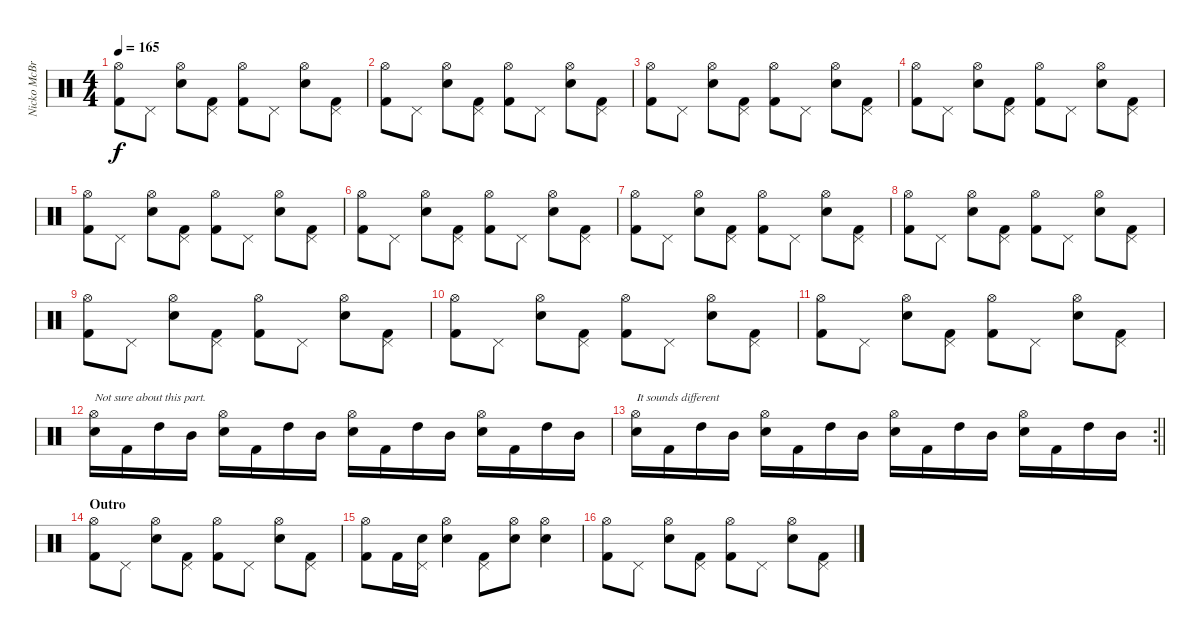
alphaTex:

\track ("Nicko McBrain" "Nicko McBr") {instrument percussion}
\staff {score}
\articulation defaults
\ts (4 4)
\tempo 165
\clef neutral
\ks c
("Kick (hit) 2" "Hi-Hat (open)").8{dy f} "Pedal Hi-Hat (hit)".8 ("Snare (hit) 2" "Hi-Hat (open)").8 ("Kick (hit) 2" "Pedal Hi-Hat (hit)").8 ("Kick (hit) 2" "Hi-Hat (open)").8 "Pedal Hi-Hat (hit)".8 ("Snare (hit) 2" "Hi-Hat (open)").8 ("Kick (hit) 2" "Pedal Hi-Hat (hit)").8 |
("Kick (hit) 2" "Hi-Hat (open)").8 "Pedal Hi-Hat (hit)".8 ("Snare (hit) 2" "Hi-Hat (open)").8 ("Kick (hit) 2" "Pedal Hi-Hat (hit)").8 ("Kick (hit) 2" "Hi-Hat (open)").8 "Pedal Hi-Hat (hit)".8 ("Snare (hit) 2" "Hi-Hat (open)").8 ("Kick (hit) 2" "Pedal Hi-Hat (hit)").8 |
("Kick (hit) 2" "Hi-Hat (open)").8 "Pedal Hi-Hat (hit)".8 ("Snare (hit) 2" "Hi-Hat (open)").8 ("Kick (hit) 2" "Pedal Hi-Hat (hit)").8 ("Kick (hit) 2" "Hi-Hat (open)").8 "Pedal Hi-Hat (hit)".8 ("Snare (hit) 2" "Hi-Hat (open)").8 ("Kick (hit) 2" "Pedal Hi-Hat (hit)").8 |
("Kick (hit) 2" "Hi-Hat (open)").8 "Pedal Hi-Hat (hit)".8 ("Snare (hit) 2" "Hi-Hat (open)").8 ("Kick (hit) 2" "Pedal Hi-Hat (hit)").8 ("Kick (hit) 2" "Hi-Hat (open)").8 "Pedal Hi-Hat (hit)".8 ("Snare (hit) 2" "Hi-Hat (open)").8 ("Kick (hit) 2" "Pedal Hi-Hat (hit)").8 |
("Kick (hit) 2" "Hi-Hat (open)").8 "Pedal Hi-Hat (hit)".8 ("Snare (hit) 2" "Hi-Hat (open)").8 ("Kick (hit) 2" "Pedal Hi-Hat (hit)").8 ("Kick (hit) 2" "Hi-Hat (open)").8 "Pedal Hi-Hat (hit)".8 ("Snare (hit) 2" "Hi-Hat (open)").8 ("Kick (hit) 2" "Pedal Hi-Hat (hit)").8 |
("Kick (hit) 2" "Hi-Hat (open)").8 "Pedal Hi-Hat (hit)".8 ("Snare (hit) 2" "Hi-Hat (open)").8 ("Kick (hit) 2" "Pedal Hi-Hat (hit)").8 ("Kick (hit) 2" "Hi-Hat (open)").8 "Pedal Hi-Hat (hit)".8 ("Snare (hit) 2" "Hi-Hat (open)").8 ("Kick (hit) 2" "Pedal Hi-Hat (hit)").8 |
("Kick (hit) 2" "Hi-Hat (open)").8 "Pedal Hi-Hat (hit)".8 ("Snare (hit) 2" "Hi-Hat (open)").8 ("Kick (hit) 2" "Pedal Hi-Hat (hit)").8 ("Kick (hit) 2" "Hi-Hat (open)").8 "Pedal Hi-Hat (hit)".8 ("Snare (hit) 2" "Hi-Hat (open)").8 ("Kick (hit) 2" "Pedal Hi-Hat (hit)").8 |
("Kick (hit) 2" "Hi-Hat (open)").8 "Pedal Hi-Hat (hit)".8 ("Snare (hit) 2" "Hi-Hat (open)").8 ("Kick (hit) 2" "Pedal Hi-Hat (hit)").8 ("Kick (hit) 2" "Hi-Hat (open)").8 "Pedal Hi-Hat (hit)".8 ("Snare (hit) 2" "Hi-Hat (open)").8 ("Kick (hit) 2" "Pedal Hi-Hat (hit)").8 |
("Kick (hit) 2" "Hi-Hat (open)").8 "Pedal Hi-Hat (hit)".8 ("Snare (hit) 2" "Hi-Hat (open)").8 ("Kick (hit) 2" "Pedal Hi-Hat (hit)").8 ("Kick (hit) 2" "Hi-Hat (open)").8 "Pedal Hi-Hat (hit)".8 ("Snare (hit) 2" "Hi-Hat (open)").8 ("Kick (hit) 2" "Pedal Hi-Hat (hit)").8 |
("Kick (hit) 2" "Hi-Hat (open)").8 "Pedal Hi-Hat (hit)".8 ("Snare (hit) 2" "Hi-Hat (open)").8 ("Kick (hit) 2" "Pedal Hi-Hat (hit)").8 ("Kick (hit) 2" "Hi-Hat (open)").8 "Pedal Hi-Hat (hit)".8 ("Snare (hit) 2" "Hi-Hat (open)").8 ("Kick (hit) 2" "Pedal Hi-Hat (hit)").8 |
("Kick (hit) 2" "Hi-Hat (open)").8 "Pedal Hi-Hat (hit)".8 ("Snare (hit) 2" "Hi-Hat (open)").8 ("Kick (hit) 2" "Pedal Hi-Hat (hit)").8 ("Kick (hit) 2" "Hi-Hat (open)").8 "Pedal Hi-Hat (hit)".8 ("Snare (hit) 2" "Hi-Hat (open)").8 ("Kick (hit) 2" "Pedal Hi-Hat (hit)").8 |
("Snare (hit) 2" "Hi-Hat (open)").16{txt "Not sure about this part."} "Kick (hit) 2".16 "High Tom (hit)".16 "Mid Tom (hit)".16 ("Snare (hit) 2" "Hi-Hat (open)").16 "Kick (hit) 2".16 "High Tom (hit)".16 "Mid Tom (hit)".16 ("Snare (hit) 2" "Hi-Hat (open)").16 "Kick (hit) 2".16 "High Tom (hit)".16 "Mid Tom (hit)".16 ("Snare (hit) 2" "Hi-Hat (open)").16 "Kick (hit) 2".16 "High Tom (hit)".16 "Mid Tom (hit)".16 |
\rc 2
\barLineRight lightlight
("Snare (hit) 2" "Hi-Hat (open)").16{txt "It sounds different"} "Kick (hit) 2".16 "High Tom (hit)".16 "Mid Tom (hit)".16 ("Snare (hit) 2" "Hi-Hat (open)").16 "Kick (hit) 2".16 "High Tom (hit)".16 "Mid Tom (hit)".16 ("Snare (hit) 2" "Hi-Hat (open)").16 "Kick (hit) 2".16 "High Tom (hit)".16 "Mid Tom (hit)".16 ("Snare (hit) 2" "Hi-Hat (open)").16 "Kick (hit) 2".16 "High Tom (hit)".16 "Mid Tom (hit)".16 |
\section ("" "Outro")
("Kick (hit) 2" "Hi-Hat (open)").8 "Pedal Hi-Hat (hit)".8 ("Snare (hit) 2" "Hi-Hat (open)").8 ("Kick (hit) 2" "Pedal Hi-Hat (hit)").8 ("Kick (hit) 2" "Hi-Hat (open)").8 "Pedal Hi-Hat (hit)".8 ("Snare (hit) 2" "Hi-Hat (open)").8 ("Kick (hit) 2" "Pedal Hi-Hat (hit)").8 |
("Kick (hit) 2" "Hi-Hat (open)").8 "Kick (hit) 2".16 ("Snare (hit) 2" "Pedal Hi-Hat (hit)").16 ("Snare (hit) 2" "Hi-Hat (open)").4 ("Kick (hit) 2" "Pedal Hi-Hat (hit)").8 ("Snare (hit) 2" "Hi-Hat (open)").8 ("Snare (hit) 2" "Hi-Hat (open)").4 |
("Kick (hit) 2" "Hi-Hat (open)").8 "Pedal Hi-Hat (hit)".8 ("Snare (hit) 2" "Hi-Hat (open)").8 ("Kick (hit) 2" "Pedal Hi-Hat (hit)").8 ("Kick (hit) 2" "Hi-Hat (open)").8 "Pedal Hi-Hat (hit)".8 ("Snare (hit) 2" "Hi-Hat (open)").8 ("Kick (hit) 2" "Pedal Hi-Hat (hit)").8
